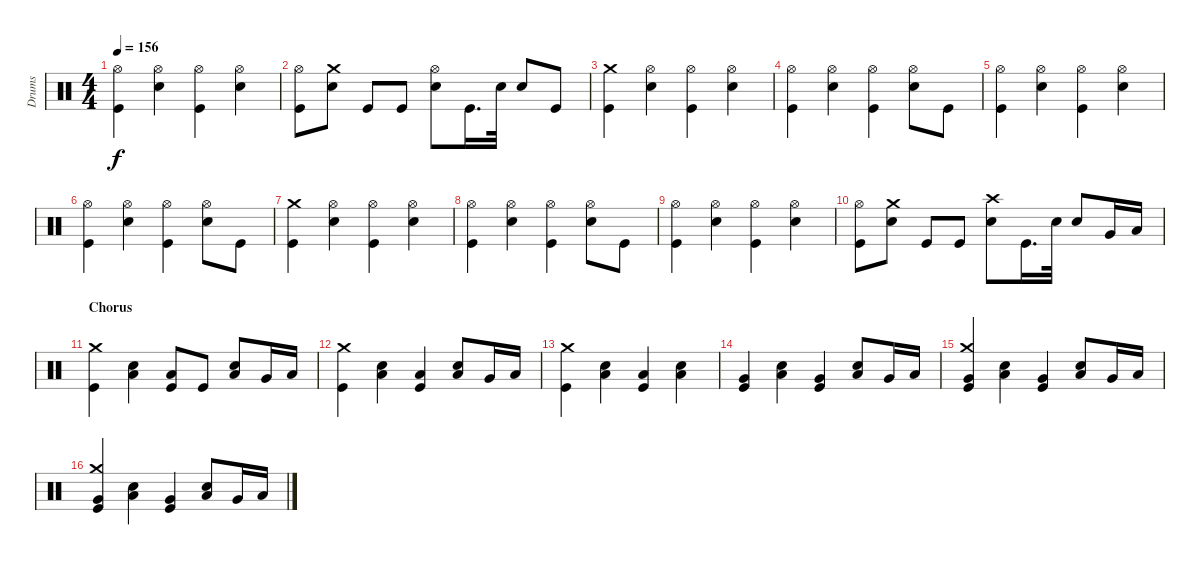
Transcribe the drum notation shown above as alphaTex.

\track ("Drums" "Drums") {instrument percussion}
\staff {score}
\articulation defaults
\ts (4 4)
\tempo 156
\clef neutral
\ks c
("Kick (hit)" "Hi-Hat (open)").4{dy f} ("Electric Snare (hit)" "Hi-Hat (open)").4 ("Kick (hit)" "Hi-Hat (open)").4 ("Electric Snare (hit)" "Hi-Hat (open)").4 |
("Kick (hit)" "Hi-Hat (open)").8 ("Electric Snare (hit)" "Crash medium (hit)").8 "Kick (hit)".8 "Kick (hit)".8 ("Hi-Hat (open)" "Electric Snare (hit)").8 "Kick (hit)".16{d} "Electric Snare (hit)".32 "Electric Snare (hit)".8 "Kick (hit)".8 |
("Kick (hit)" "Crash medium (hit)").4 ("Hi-Hat (open)" "Electric Snare (hit)").4 ("Hi-Hat (open)" "Kick (hit)").4 ("Hi-Hat (open)" "Electric Snare (hit)").4 |
("Kick (hit)" "Hi-Hat (open)").4 ("Electric Snare (hit)" "Hi-Hat (open)").4 ("Kick (hit)" "Hi-Hat (open)").4 ("Electric Snare (hit)" "Hi-Hat (open)").8 "Kick (hit)".8 |
("Kick (hit)" "Hi-Hat (open)").4 ("Electric Snare (hit)" "Hi-Hat (open)").4 ("Kick (hit)" "Hi-Hat (open)").4 ("Electric Snare (hit)" "Hi-Hat (open)").4 |
("Kick (hit)" "Hi-Hat (open)").4 ("Electric Snare (hit)" "Hi-Hat (open)").4 ("Kick (hit)" "Hi-Hat (open)").4 ("Electric Snare (hit)" "Hi-Hat (open)").8 "Kick (hit)".8 |
("Kick (hit)" "Crash medium (hit)").4 ("Electric Snare (hit)" "Hi-Hat (open)").4 ("Kick (hit)" "Hi-Hat (open)").4 ("Electric Snare (hit)" "Hi-Hat (open)").4 |
("Kick (hit)" "Hi-Hat (open)").4 ("Electric Snare (hit)" "Hi-Hat (open)").4 ("Kick (hit)" "Hi-Hat (open)").4 ("Electric Snare (hit)" "Hi-Hat (open)").8 "Kick (hit)".8 |
("Kick (hit)" "Hi-Hat (open)").4 ("Electric Snare (hit)" "Hi-Hat (open)").4 ("Kick (hit)" "Hi-Hat (open)").4 ("Electric Snare (hit)" "Hi-Hat (open)").4 |
("Kick (hit)" "Hi-Hat (open)").8 ("Electric Snare (hit)" "Crash medium (hit)").8 "Kick (hit)".8 "Kick (hit)".8 ("Crash high (hit)" "Electric Snare (hit)").8 "Kick (hit)".16{d} "Electric Snare (hit)".32 "Electric Snare (hit)".8 "Very Low Tom (hit)".16 "Low Floor Tom (hit)".16 |
\section ("" "Chorus")
("Kick (hit)" "Crash medium (hit)").4 ("Low Floor Tom (hit)" "Electric Snare (hit)").4 ("Low Floor Tom (hit)" "Kick (hit)").8 "Kick (hit)".8 ("Low Tom (hit)" "Electric Snare (hit)").8 "Very Low Tom (hit)".16 "Low Floor Tom (hit)".16 |
("Kick (hit)" "Crash medium (hit)").4 ("Low Floor Tom (hit)" "Electric Snare (hit)").4 ("Low Floor Tom (hit)" "Kick (hit)").4 ("Low Tom (hit)" "Electric Snare (hit)").8 "Very Low Tom (hit)".16 "Low Floor Tom (hit)".16 |
("Crash medium (hit)" "Kick (hit)").4 ("Low Floor Tom (hit)" "Electric Snare (hit)").4 ("Kick (hit)" "Low Floor Tom (hit)").4 ("Electric Snare (hit)" "Low Floor Tom (hit)").4 |
("Kick (hit)" "Very Low Tom (hit)").4 ("Electric Snare (hit)" "Low Floor Tom (hit)").4 ("Kick (hit)" "Very Low Tom (hit)").4 ("Low Tom (hit)" "Electric Snare (hit)").8 "Very Low Tom (hit)".16 "Low Floor Tom (hit)".16 |
("Crash medium (hit)" "Kick (hit)" "Very Low Tom (hit)").4 ("Electric Snare (hit)" "Low Tom (hit)").4 ("Kick (hit)" "Very Low Tom (hit)").4 ("Low Tom (hit)" "Electric Snare (hit)").8 "Very Low Tom (hit)".16 "Low Floor Tom (hit)".16 |
("Crash medium (hit)" "Kick (hit)" "Very Low Tom (hit)").4 ("Electric Snare (hit)" "Low Tom (hit)").4 ("Kick (hit)" "Very Low Tom (hit)").4 ("Low Tom (hit)" "Electric Snare (hit)").8 "Very Low Tom (hit)".16 "Low Floor Tom (hit)".16
